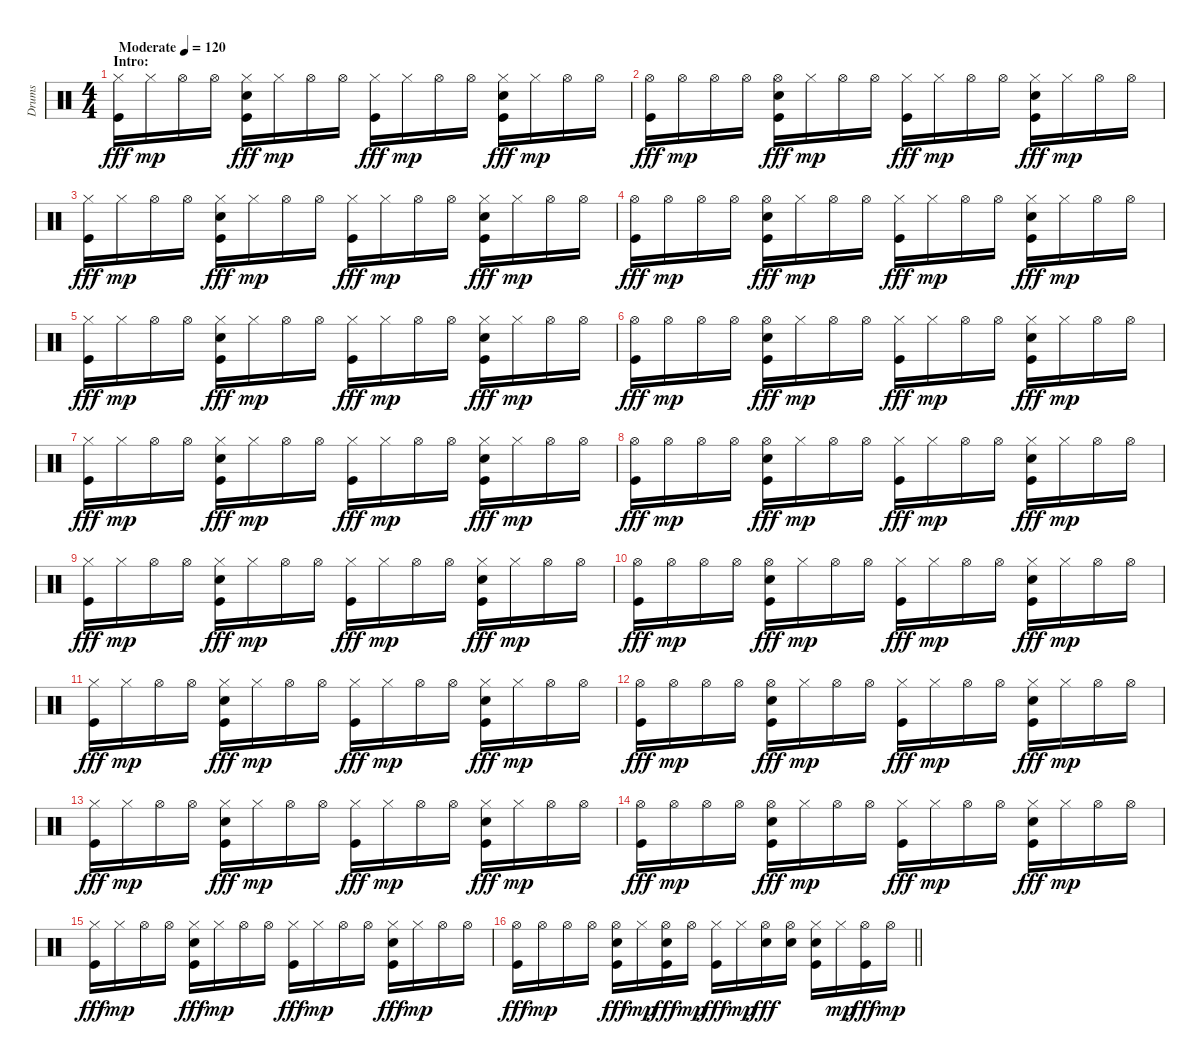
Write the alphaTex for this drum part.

\track ("Drums" "Drums") {instrument percussion}
\staff {score}
\articulation defaults
\ts (4 4)
\section ("" "Intro:")
\tempo (120 "Moderate")
\clef neutral
\ks c
("Hi-Hat (closed)" "Kick (hit)").16{dy fff} "Hi-Hat (closed)".16{dy mp} "Hi-Hat (open)".16 "Hi-Hat (open)".16 ("Hi-Hat (closed)" "Snare (hit) 2" "Kick (hit)").16{dy fff} "Hi-Hat (closed)".16{dy mp} "Hi-Hat (open)".16 "Hi-Hat (open)".16 ("Hi-Hat (closed)" "Kick (hit)").16{dy fff} "Hi-Hat (closed)".16{dy mp} "Hi-Hat (open)".16 "Hi-Hat (open)".16 ("Hi-Hat (closed)" "Snare (hit) 2" "Kick (hit)").16{dy fff} "Hi-Hat (closed)".16{dy mp} "Hi-Hat (open)".16 "Hi-Hat (open)".16 |
("Hi-Hat (open)" "Kick (hit)").16{dy fff} "Hi-Hat (open)".16{dy mp} "Hi-Hat (open)".16 "Hi-Hat (open)".16 ("Hi-Hat (open)" "Snare (hit) 2" "Kick (hit)").16{dy fff} "Hi-Hat (closed)".16{dy mp} "Hi-Hat (open)".16 "Hi-Hat (open)".16 ("Hi-Hat (closed)" "Kick (hit)").16{dy fff} "Hi-Hat (closed)".16{dy mp} "Hi-Hat (open)".16 "Hi-Hat (open)".16 ("Hi-Hat (closed)" "Snare (hit) 2" "Kick (hit)").16{dy fff} "Hi-Hat (closed)".16{dy mp} "Hi-Hat (open)".16 "Hi-Hat (open)".16 |
("Hi-Hat (closed)" "Kick (hit)").16{dy fff} "Hi-Hat (closed)".16{dy mp} "Hi-Hat (open)".16 "Hi-Hat (open)".16 ("Hi-Hat (closed)" "Snare (hit) 2" "Kick (hit)").16{dy fff} "Hi-Hat (closed)".16{dy mp} "Hi-Hat (open)".16 "Hi-Hat (open)".16 ("Hi-Hat (closed)" "Kick (hit)").16{dy fff} "Hi-Hat (closed)".16{dy mp} "Hi-Hat (open)".16 "Hi-Hat (open)".16 ("Hi-Hat (closed)" "Snare (hit) 2" "Kick (hit)").16{dy fff} "Hi-Hat (closed)".16{dy mp} "Hi-Hat (open)".16 "Hi-Hat (open)".16 |
("Hi-Hat (open)" "Kick (hit)").16{dy fff} "Hi-Hat (open)".16{dy mp} "Hi-Hat (open)".16 "Hi-Hat (open)".16 ("Hi-Hat (open)" "Snare (hit) 2" "Kick (hit)").16{dy fff} "Hi-Hat (closed)".16{dy mp} "Hi-Hat (open)".16 "Hi-Hat (open)".16 ("Hi-Hat (closed)" "Kick (hit)").16{dy fff} "Hi-Hat (closed)".16{dy mp} "Hi-Hat (open)".16 "Hi-Hat (open)".16 ("Hi-Hat (closed)" "Snare (hit) 2" "Kick (hit)").16{dy fff} "Hi-Hat (closed)".16{dy mp} "Hi-Hat (open)".16 "Hi-Hat (open)".16 |
("Hi-Hat (closed)" "Kick (hit)").16{dy fff} "Hi-Hat (closed)".16{dy mp} "Hi-Hat (open)".16 "Hi-Hat (open)".16 ("Hi-Hat (closed)" "Snare (hit) 2" "Kick (hit)").16{dy fff} "Hi-Hat (closed)".16{dy mp} "Hi-Hat (open)".16 "Hi-Hat (open)".16 ("Hi-Hat (closed)" "Kick (hit)").16{dy fff} "Hi-Hat (closed)".16{dy mp} "Hi-Hat (open)".16 "Hi-Hat (open)".16 ("Hi-Hat (closed)" "Snare (hit) 2" "Kick (hit)").16{dy fff} "Hi-Hat (closed)".16{dy mp} "Hi-Hat (open)".16 "Hi-Hat (open)".16 |
("Hi-Hat (open)" "Kick (hit)").16{dy fff} "Hi-Hat (open)".16{dy mp} "Hi-Hat (open)".16 "Hi-Hat (open)".16 ("Hi-Hat (open)" "Snare (hit) 2" "Kick (hit)").16{dy fff} "Hi-Hat (closed)".16{dy mp} "Hi-Hat (open)".16 "Hi-Hat (open)".16 ("Hi-Hat (closed)" "Kick (hit)").16{dy fff} "Hi-Hat (closed)".16{dy mp} "Hi-Hat (open)".16 "Hi-Hat (open)".16 ("Hi-Hat (closed)" "Snare (hit) 2" "Kick (hit)").16{dy fff} "Hi-Hat (closed)".16{dy mp} "Hi-Hat (open)".16 "Hi-Hat (open)".16 |
("Hi-Hat (closed)" "Kick (hit)").16{dy fff} "Hi-Hat (closed)".16{dy mp} "Hi-Hat (open)".16 "Hi-Hat (open)".16 ("Hi-Hat (closed)" "Snare (hit) 2" "Kick (hit)").16{dy fff} "Hi-Hat (closed)".16{dy mp} "Hi-Hat (open)".16 "Hi-Hat (open)".16 ("Hi-Hat (closed)" "Kick (hit)").16{dy fff} "Hi-Hat (closed)".16{dy mp} "Hi-Hat (open)".16 "Hi-Hat (open)".16 ("Hi-Hat (closed)" "Snare (hit) 2" "Kick (hit)").16{dy fff} "Hi-Hat (closed)".16{dy mp} "Hi-Hat (open)".16 "Hi-Hat (open)".16 |
("Hi-Hat (open)" "Kick (hit)").16{dy fff} "Hi-Hat (open)".16{dy mp} "Hi-Hat (open)".16 "Hi-Hat (open)".16 ("Hi-Hat (open)" "Snare (hit) 2" "Kick (hit)").16{dy fff} "Hi-Hat (closed)".16{dy mp} "Hi-Hat (open)".16 "Hi-Hat (open)".16 ("Hi-Hat (closed)" "Kick (hit)").16{dy fff} "Hi-Hat (closed)".16{dy mp} "Hi-Hat (open)".16 "Hi-Hat (open)".16 ("Hi-Hat (closed)" "Snare (hit) 2" "Kick (hit)").16{dy fff} "Hi-Hat (closed)".16{dy mp} "Hi-Hat (open)".16 "Hi-Hat (open)".16 |
("Hi-Hat (closed)" "Kick (hit)").16{dy fff} "Hi-Hat (closed)".16{dy mp} "Hi-Hat (open)".16 "Hi-Hat (open)".16 ("Hi-Hat (closed)" "Snare (hit) 2" "Kick (hit)").16{dy fff} "Hi-Hat (closed)".16{dy mp} "Hi-Hat (open)".16 "Hi-Hat (open)".16 ("Hi-Hat (closed)" "Kick (hit)").16{dy fff} "Hi-Hat (closed)".16{dy mp} "Hi-Hat (open)".16 "Hi-Hat (open)".16 ("Hi-Hat (closed)" "Snare (hit) 2" "Kick (hit)").16{dy fff} "Hi-Hat (closed)".16{dy mp} "Hi-Hat (open)".16 "Hi-Hat (open)".16 |
("Hi-Hat (open)" "Kick (hit)").16{dy fff} "Hi-Hat (open)".16{dy mp} "Hi-Hat (open)".16 "Hi-Hat (open)".16 ("Hi-Hat (open)" "Snare (hit) 2" "Kick (hit)").16{dy fff} "Hi-Hat (closed)".16{dy mp} "Hi-Hat (open)".16 "Hi-Hat (open)".16 ("Hi-Hat (closed)" "Kick (hit)").16{dy fff} "Hi-Hat (closed)".16{dy mp} "Hi-Hat (open)".16 "Hi-Hat (open)".16 ("Hi-Hat (closed)" "Snare (hit) 2" "Kick (hit)").16{dy fff} "Hi-Hat (closed)".16{dy mp} "Hi-Hat (open)".16 "Hi-Hat (open)".16 |
("Hi-Hat (closed)" "Kick (hit)").16{dy fff} "Hi-Hat (closed)".16{dy mp} "Hi-Hat (open)".16 "Hi-Hat (open)".16 ("Hi-Hat (closed)" "Snare (hit) 2" "Kick (hit)").16{dy fff} "Hi-Hat (closed)".16{dy mp} "Hi-Hat (open)".16 "Hi-Hat (open)".16 ("Hi-Hat (closed)" "Kick (hit)").16{dy fff} "Hi-Hat (closed)".16{dy mp} "Hi-Hat (open)".16 "Hi-Hat (open)".16 ("Hi-Hat (closed)" "Snare (hit) 2" "Kick (hit)").16{dy fff} "Hi-Hat (closed)".16{dy mp} "Hi-Hat (open)".16 "Hi-Hat (open)".16 |
("Hi-Hat (open)" "Kick (hit)").16{dy fff} "Hi-Hat (open)".16{dy mp} "Hi-Hat (open)".16 "Hi-Hat (open)".16 ("Hi-Hat (open)" "Snare (hit) 2" "Kick (hit)").16{dy fff} "Hi-Hat (closed)".16{dy mp} "Hi-Hat (open)".16 "Hi-Hat (open)".16 ("Hi-Hat (closed)" "Kick (hit)").16{dy fff} "Hi-Hat (closed)".16{dy mp} "Hi-Hat (open)".16 "Hi-Hat (open)".16 ("Hi-Hat (closed)" "Snare (hit) 2" "Kick (hit)").16{dy fff} "Hi-Hat (closed)".16{dy mp} "Hi-Hat (open)".16 "Hi-Hat (open)".16 |
("Hi-Hat (closed)" "Kick (hit)").16{dy fff} "Hi-Hat (closed)".16{dy mp} "Hi-Hat (open)".16 "Hi-Hat (open)".16 ("Hi-Hat (closed)" "Snare (hit) 2" "Kick (hit)").16{dy fff} "Hi-Hat (closed)".16{dy mp} "Hi-Hat (open)".16 "Hi-Hat (open)".16 ("Hi-Hat (closed)" "Kick (hit)").16{dy fff} "Hi-Hat (closed)".16{dy mp} "Hi-Hat (open)".16 "Hi-Hat (open)".16 ("Hi-Hat (closed)" "Snare (hit) 2" "Kick (hit)").16{dy fff} "Hi-Hat (closed)".16{dy mp} "Hi-Hat (open)".16 "Hi-Hat (open)".16 |
("Hi-Hat (open)" "Kick (hit)").16{dy fff} "Hi-Hat (open)".16{dy mp} "Hi-Hat (open)".16 "Hi-Hat (open)".16 ("Hi-Hat (open)" "Snare (hit) 2" "Kick (hit)").16{dy fff} "Hi-Hat (closed)".16{dy mp} "Hi-Hat (open)".16 "Hi-Hat (open)".16 ("Hi-Hat (closed)" "Kick (hit)").16{dy fff} "Hi-Hat (closed)".16{dy mp} "Hi-Hat (open)".16 "Hi-Hat (open)".16 ("Hi-Hat (closed)" "Snare (hit) 2" "Kick (hit)").16{dy fff} "Hi-Hat (closed)".16{dy mp} "Hi-Hat (open)".16 "Hi-Hat (open)".16 |
("Hi-Hat (closed)" "Kick (hit)").16{dy fff} "Hi-Hat (closed)".16{dy mp} "Hi-Hat (open)".16 "Hi-Hat (open)".16 ("Hi-Hat (closed)" "Snare (hit) 2" "Kick (hit)").16{dy fff} "Hi-Hat (closed)".16{dy mp} "Hi-Hat (open)".16 "Hi-Hat (open)".16 ("Hi-Hat (closed)" "Kick (hit)").16{dy fff} "Hi-Hat (closed)".16{dy mp} "Hi-Hat (open)".16 "Hi-Hat (open)".16 ("Hi-Hat (closed)" "Snare (hit) 2" "Kick (hit)").16{dy fff} "Hi-Hat (closed)".16{dy mp} "Hi-Hat (open)".16 "Hi-Hat (open)".16 |
\barLineRight lightlight
("Hi-Hat (open)" "Kick (hit)").16{dy fff} "Hi-Hat (open)".16{dy mp} "Hi-Hat (open)".16 "Hi-Hat (open)".16 ("Hi-Hat (open)" "Snare (hit) 2" "Kick (hit)").16{dy fff} "Hi-Hat (closed)".16{dy mp} ("Hi-Hat (open)" "Snare (hit) 2" "Kick (hit)").16{dy fff} "Hi-Hat (open)".16{dy mp} ("Hi-Hat (closed)" "Kick (hit)").16{dy fff} "Hi-Hat (closed)".16{dy mp} ("Hi-Hat (open)" "Snare (hit) 2").16{dy fff} ("Hi-Hat (open)" "Snare (hit) 2").16 ("Hi-Hat (closed)" "Snare (hit) 2" "Kick (hit)").16 "Hi-Hat (closed)".16{dy mp} ("Hi-Hat (open)" "Kick (hit)").16{dy fff} "Hi-Hat (open)".16{dy mp}
